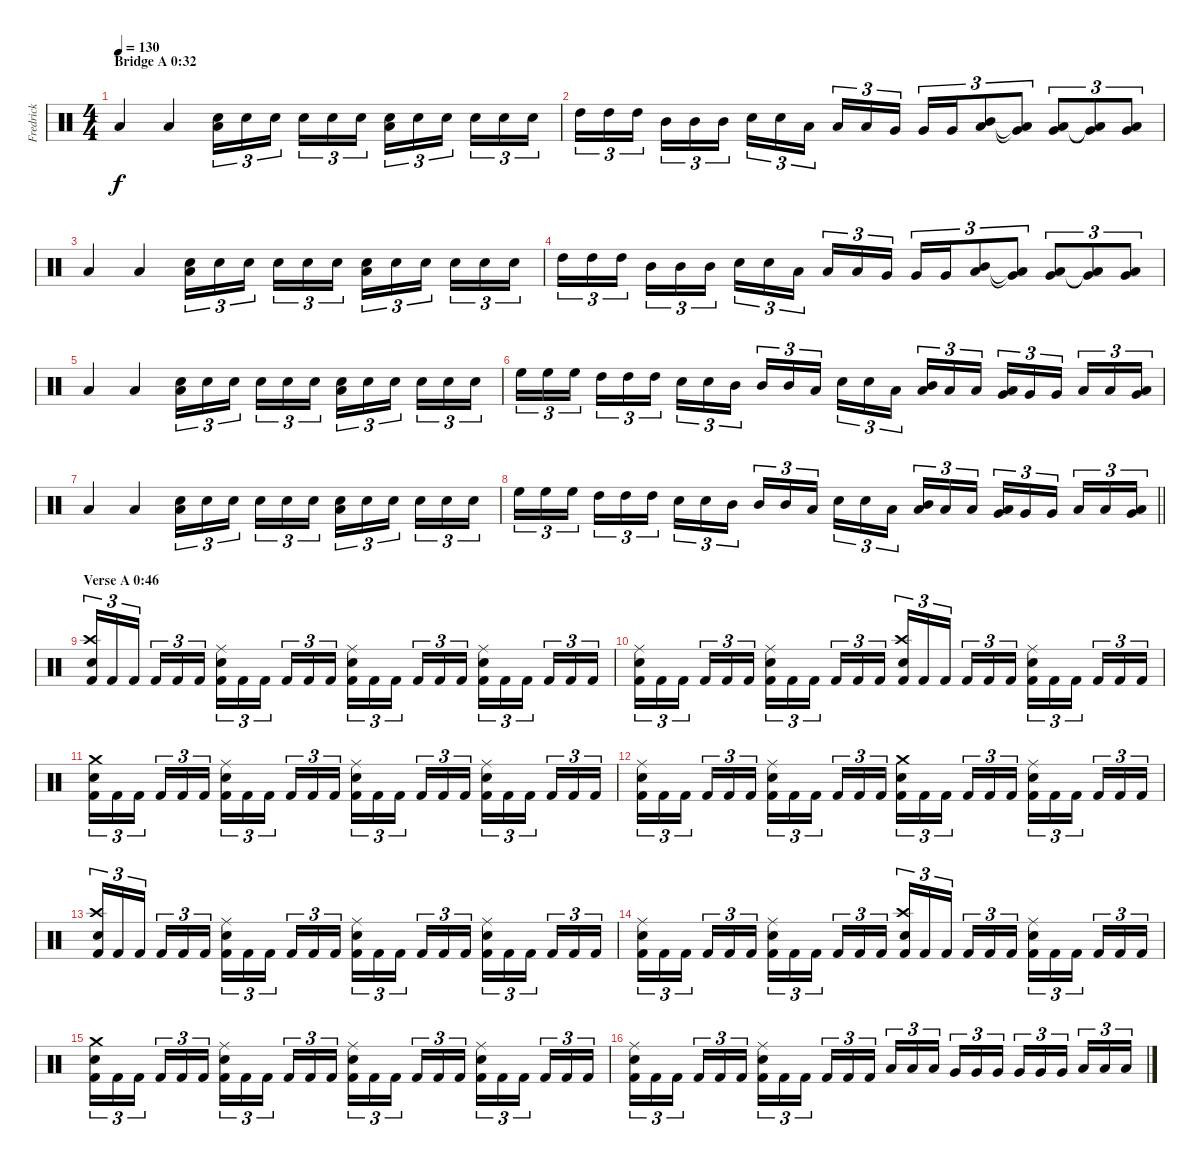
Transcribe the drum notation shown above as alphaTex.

\track ("Fredrick" "Fredrick") {instrument percussion}
\staff {score}
\articulation defaults
\ts (4 4)
\section ("" "Bridge A 0:32")
\tempo 130
\clef neutral
\ks c "Low Floor Tom (hit)".4{dy f} "Low Floor Tom (hit)".4
("Low Floor Tom (hit)" "Electric Snare (hit)").16{tu (3 2)} "Electric Snare (hit)".16{tu (3 2)} "Electric Snare (hit)".16{tu (3 2) beam splitsecondary} "Electric Snare (hit)".16{tu (3 2)} "Electric Snare (hit)".16{tu (3 2)} "Electric Snare (hit)".16{tu (3 2)} ("Low Floor Tom (hit)" "Electric Snare (hit)").16{tu (3 2)} "Electric Snare (hit)".16{tu (3 2)} "Electric Snare (hit)".16{tu (3 2) beam splitsecondary} "Electric Snare (hit)".16{tu (3 2)} "Electric Snare (hit)".16{tu (3 2)} "Electric Snare (hit)".16{tu (3 2)} |
"High Tom (hit)".16{tu (3 2)} "High Tom (hit)".16{tu (3 2)} "High Tom (hit)".16{tu (3 2) beam splitsecondary} "Mid Tom (hit)".16{tu (3 2)} "Mid Tom (hit)".16{tu (3 2)} "Mid Tom (hit)".16{tu (3 2)} "Electric Snare (hit)".16{tu (3 2)} "Electric Snare (hit)".16{tu (3 2)} "Low Tom (hit)".16{tu (3 2) beam splitsecondary} "Low Tom (hit)".16{tu (3 2)} "Low Tom (hit)".16{tu (3 2)} "Very Low Tom (hit)".16{tu (3 2)} "Very Low Tom (hit)".16{tu (3 2)} "Very Low Tom (hit)".16{tu (3 2)} ("Mid Tom (hit)" "Low Tom (hit)").8{tu (3 2)} ("Low Tom (hit)"{t} "Very Low Tom (hit)"{t}).8{tu (3 2)} ("Low Tom (hit)" "Very Low Tom (hit)").8{tu (3 2)} ("Very Low Tom (hit)"{t} "Low Floor Tom (hit)"{t}).8{tu (3 2)} ("Very Low Tom (hit)" "Low Floor Tom (hit)").8{tu (3 2)} |
"Low Floor Tom (hit)".4 "Low Floor Tom (hit)".4 ("Low Floor Tom (hit)" "Electric Snare (hit)").16{tu (3 2)} "Electric Snare (hit)".16{tu (3 2)} "Electric Snare (hit)".16{tu (3 2) beam splitsecondary} "Electric Snare (hit)".16{tu (3 2)} "Electric Snare (hit)".16{tu (3 2)} "Electric Snare (hit)".16{tu (3 2)} ("Low Floor Tom (hit)" "Electric Snare (hit)").16{tu (3 2)} "Electric Snare (hit)".16{tu (3 2)} "Electric Snare (hit)".16{tu (3 2) beam splitsecondary} "Electric Snare (hit)".16{tu (3 2)} "Electric Snare (hit)".16{tu (3 2)} "Electric Snare (hit)".16{tu (3 2)} |
"High Tom (hit)".16{tu (3 2)} "High Tom (hit)".16{tu (3 2)} "High Tom (hit)".16{tu (3 2) beam splitsecondary} "Mid Tom (hit)".16{tu (3 2)} "Mid Tom (hit)".16{tu (3 2)} "Mid Tom (hit)".16{tu (3 2)} "Electric Snare (hit)".16{tu (3 2)} "Electric Snare (hit)".16{tu (3 2)} "Low Tom (hit)".16{tu (3 2) beam splitsecondary} "Low Tom (hit)".16{tu (3 2)} "Low Tom (hit)".16{tu (3 2)} "Very Low Tom (hit)".16{tu (3 2)} "Very Low Tom (hit)".16{tu (3 2)} "Very Low Tom (hit)".16{tu (3 2)} ("Mid Tom (hit)" "Low Tom (hit)").8{tu (3 2)} ("Low Tom (hit)"{t} "Very Low Tom (hit)"{t}).8{tu (3 2)} ("Low Tom (hit)" "Very Low Tom (hit)").8{tu (3 2)} ("Very Low Tom (hit)"{t} "Low Floor Tom (hit)"{t}).8{tu (3 2)} ("Very Low Tom (hit)" "Low Floor Tom (hit)").8{tu (3 2)} |
"Low Floor Tom (hit)".4 "Low Floor Tom (hit)".4 ("Low Floor Tom (hit)" "Electric Snare (hit)").16{tu (3 2)} "Electric Snare (hit)".16{tu (3 2)} "Electric Snare (hit)".16{tu (3 2) beam splitsecondary} "Electric Snare (hit)".16{tu (3 2)} "Electric Snare (hit)".16{tu (3 2)} "Electric Snare (hit)".16{tu (3 2)} ("Low Floor Tom (hit)" "Electric Snare (hit)").16{tu (3 2)} "Electric Snare (hit)".16{tu (3 2)} "Electric Snare (hit)".16{tu (3 2) beam splitsecondary} "Electric Snare (hit)".16{tu (3 2)} "Electric Snare (hit)".16{tu (3 2)} "Electric Snare (hit)".16{tu (3 2)} |
"High Floor Tom (hit)".16{tu (3 2)} "High Floor Tom (hit)".16{tu (3 2)} "High Floor Tom (hit)".16{tu (3 2) beam splitsecondary} "High Tom (hit)".16{tu (3 2)} "High Tom (hit)".16{tu (3 2)} "High Tom (hit)".16{tu (3 2)} "Electric Snare (hit)".16{tu (3 2)} "Electric Snare (hit)".16{tu (3 2)} "Mid Tom (hit)".16{tu (3 2) beam splitsecondary} "Mid Tom (hit)".16{tu (3 2)} "Mid Tom (hit)".16{tu (3 2)} "Low Tom (hit)".16{tu (3 2)} "Electric Snare (hit)".16{tu (3 2)} "Electric Snare (hit)".16{tu (3 2)} "Low Tom (hit)".16{tu (3 2) beam splitsecondary} ("Mid Tom (hit)" "Low Tom (hit)").16{tu (3 2)} "Low Tom (hit)".16{tu (3 2)} "Low Tom (hit)".16{tu (3 2)} ("Low Tom (hit)" "Very Low Tom (hit)").16{tu (3 2)} "Very Low Tom (hit)".16{tu (3 2)} "Very Low Tom (hit)".16{tu (3 2) beam splitsecondary} "Low Floor Tom (hit)".16{tu (3 2)} "Low Floor Tom (hit)".16{tu (3 2)} ("Very Low Tom (hit)" "Low Floor Tom (hit)").16{tu (3 2)} |
"Low Floor Tom (hit)".4 "Low Floor Tom (hit)".4 ("Low Floor Tom (hit)" "Electric Snare (hit)").16{tu (3 2)} "Electric Snare (hit)".16{tu (3 2)} "Electric Snare (hit)".16{tu (3 2) beam splitsecondary} "Electric Snare (hit)".16{tu (3 2)} "Electric Snare (hit)".16{tu (3 2)} "Electric Snare (hit)".16{tu (3 2)} ("Low Floor Tom (hit)" "Electric Snare (hit)").16{tu (3 2)} "Electric Snare (hit)".16{tu (3 2)} "Electric Snare (hit)".16{tu (3 2) beam splitsecondary} "Electric Snare (hit)".16{tu (3 2)} "Electric Snare (hit)".16{tu (3 2)} "Electric Snare (hit)".16{tu (3 2)} |
\barLineRight lightlight "High Floor Tom (hit)".16{tu (3 2)} "High Floor Tom (hit)".16{tu (3 2)} "High Floor Tom (hit)".16{tu (3 2) beam splitsecondary} "High Tom (hit)".16{tu (3 2)} "High Tom (hit)".16{tu (3 2)} "High Tom (hit)".16{tu (3 2)} "Electric Snare (hit)".16{tu (3 2)} "Electric Snare (hit)".16{tu (3 2)} "Mid Tom (hit)".16{tu (3 2) beam splitsecondary} "Mid Tom (hit)".16{tu (3 2)} "Mid Tom (hit)".16{tu (3 2)} "Low Tom (hit)".16{tu (3 2)} "Electric Snare (hit)".16{tu (3 2)} "Electric Snare (hit)".16{tu (3 2)} "Low Tom (hit)".16{tu (3 2) beam splitsecondary}
("Mid Tom (hit)" "Low Tom (hit)").16{tu (3 2)} "Low Tom (hit)".16{tu (3 2)} "Low Tom (hit)".16{tu (3 2)} ("Low Tom (hit)" "Very Low Tom (hit)").16{tu (3 2)} "Very Low Tom (hit)".16{tu (3 2)} "Very Low Tom (hit)".16{tu (3 2) beam splitsecondary} "Low Floor Tom (hit)".16{tu (3 2)} "Low Floor Tom (hit)".16{tu (3 2)} ("Very Low Tom (hit)" "Low Floor Tom (hit)").16{tu (3 2)} |
\section ("" "Verse A 0:46")
("Crash high (hit)" "Electric Snare (hit)" "Kick (hit) 2").16{tu (3 2)} "Kick (hit) 2".16{tu (3 2)} "Kick (hit) 2".16{tu (3 2) beam splitsecondary} "Kick (hit) 2".16{tu (3 2)} "Kick (hit) 2".16{tu (3 2)} "Kick (hit) 2".16{tu (3 2)} ("Ride (middle)" "Electric Snare (hit)" "Kick (hit) 2").16{tu (3 2)} "Kick (hit) 2".16{tu (3 2)} "Kick (hit) 2".16{tu (3 2) beam splitsecondary} "Kick (hit) 2".16{tu (3 2)} "Kick (hit) 2".16{tu (3 2)} "Kick (hit) 2".16{tu (3 2)} ("Ride (middle)" "Electric Snare (hit)" "Kick (hit) 2").16{tu (3 2)} "Kick (hit) 2".16{tu (3 2)} "Kick (hit) 2".16{tu (3 2) beam splitsecondary} "Kick (hit) 2".16{tu (3 2)} "Kick (hit) 2".16{tu (3 2)} "Kick (hit) 2".16{tu (3 2)} ("Ride (middle)" "Electric Snare (hit)" "Kick (hit) 2").16{tu (3 2)} "Kick (hit) 2".16{tu (3 2)} "Kick (hit) 2".16{tu (3 2) beam splitsecondary} "Kick (hit) 2".16{tu (3 2)} "Kick (hit) 2".16{tu (3 2)} "Kick (hit) 2".16{tu (3 2)} |
("Ride (middle)" "Electric Snare (hit)" "Kick (hit) 2").16{tu (3 2)} "Kick (hit) 2".16{tu (3 2)} "Kick (hit) 2".16{tu (3 2) beam splitsecondary} "Kick (hit) 2".16{tu (3 2)} "Kick (hit) 2".16{tu (3 2)} "Kick (hit) 2".16{tu (3 2)} ("Ride (middle)" "Electric Snare (hit)" "Kick (hit) 2").16{tu (3 2)} "Kick (hit) 2".16{tu (3 2)} "Kick (hit) 2".16{tu (3 2) beam splitsecondary} "Kick (hit) 2".16{tu (3 2)} "Kick (hit) 2".16{tu (3 2)} "Kick (hit) 2".16{tu (3 2)} ("Crash high (hit)" "Electric Snare (hit)" "Kick (hit) 2").16{tu (3 2)} "Kick (hit) 2".16{tu (3 2)} "Kick (hit) 2".16{tu (3 2) beam splitsecondary} "Kick (hit) 2".16{tu (3 2)} "Kick (hit) 2".16{tu (3 2)} "Kick (hit) 2".16{tu (3 2)} ("Ride (middle)" "Electric Snare (hit)" "Kick (hit) 2").16{tu (3 2)} "Kick (hit) 2".16{tu (3 2)} "Kick (hit) 2".16{tu (3 2) beam splitsecondary} "Kick (hit) 2".16{tu (3 2)} "Kick (hit) 2".16{tu (3 2)} "Kick (hit) 2".16{tu (3 2)} |
("Crash medium (hit)" "Electric Snare (hit)" "Kick (hit) 2").16{tu (3 2)} "Kick (hit) 2".16{tu (3 2)} "Kick (hit) 2".16{tu (3 2) beam splitsecondary} "Kick (hit) 2".16{tu (3 2)} "Kick (hit) 2".16{tu (3 2)} "Kick (hit) 2".16{tu (3 2)} ("Ride (middle)" "Electric Snare (hit)" "Kick (hit) 2").16{tu (3 2)} "Kick (hit) 2".16{tu (3 2)} "Kick (hit) 2".16{tu (3 2) beam splitsecondary} "Kick (hit) 2".16{tu (3 2)} "Kick (hit) 2".16{tu (3 2)} "Kick (hit) 2".16{tu (3 2)} ("Ride (middle)" "Electric Snare (hit)" "Kick (hit) 2").16{tu (3 2)} "Kick (hit) 2".16{tu (3 2)} "Kick (hit) 2".16{tu (3 2) beam splitsecondary} "Kick (hit) 2".16{tu (3 2)} "Kick (hit) 2".16{tu (3 2)} "Kick (hit) 2".16{tu (3 2)} ("Ride (middle)" "Electric Snare (hit)" "Kick (hit) 2").16{tu (3 2)} "Kick (hit) 2".16{tu (3 2)} "Kick (hit) 2".16{tu (3 2) beam splitsecondary} "Kick (hit) 2".16{tu (3 2)} "Kick (hit) 2".16{tu (3 2)} "Kick (hit) 2".16{tu (3 2)} |
("Ride (middle)" "Electric Snare (hit)" "Kick (hit) 2").16{tu (3 2)} "Kick (hit) 2".16{tu (3 2)} "Kick (hit) 2".16{tu (3 2) beam splitsecondary} "Kick (hit) 2".16{tu (3 2)} "Kick (hit) 2".16{tu (3 2)} "Kick (hit) 2".16{tu (3 2)} ("Ride (middle)" "Electric Snare (hit)" "Kick (hit) 2").16{tu (3 2)} "Kick (hit) 2".16{tu (3 2)} "Kick (hit) 2".16{tu (3 2) beam splitsecondary} "Kick (hit) 2".16{tu (3 2)} "Kick (hit) 2".16{tu (3 2)} "Kick (hit) 2".16{tu (3 2)} ("Crash medium (hit)" "Electric Snare (hit)" "Kick (hit) 2").16{tu (3 2)} "Kick (hit) 2".16{tu (3 2)} "Kick (hit) 2".16{tu (3 2) beam splitsecondary} "Kick (hit) 2".16{tu (3 2)} "Kick (hit) 2".16{tu (3 2)} "Kick (hit) 2".16{tu (3 2)} ("Ride (middle)" "Electric Snare (hit)" "Kick (hit) 2").16{tu (3 2)} "Kick (hit) 2".16{tu (3 2)} "Kick (hit) 2".16{tu (3 2) beam splitsecondary} "Kick (hit) 2".16{tu (3 2)} "Kick (hit) 2".16{tu (3 2)} "Kick (hit) 2".16{tu (3 2)} |
("Crash high (hit)" "Electric Snare (hit)" "Kick (hit) 2").16{tu (3 2)} "Kick (hit) 2".16{tu (3 2)} "Kick (hit) 2".16{tu (3 2) beam splitsecondary} "Kick (hit) 2".16{tu (3 2)} "Kick (hit) 2".16{tu (3 2)} "Kick (hit) 2".16{tu (3 2)} ("Ride (middle)" "Electric Snare (hit)" "Kick (hit) 2").16{tu (3 2)} "Kick (hit) 2".16{tu (3 2)} "Kick (hit) 2".16{tu (3 2) beam splitsecondary} "Kick (hit) 2".16{tu (3 2)} "Kick (hit) 2".16{tu (3 2)} "Kick (hit) 2".16{tu (3 2)} ("Ride (middle)" "Electric Snare (hit)" "Kick (hit) 2").16{tu (3 2)} "Kick (hit) 2".16{tu (3 2)} "Kick (hit) 2".16{tu (3 2) beam splitsecondary} "Kick (hit) 2".16{tu (3 2)} "Kick (hit) 2".16{tu (3 2)} "Kick (hit) 2".16{tu (3 2)} ("Ride (middle)" "Electric Snare (hit)" "Kick (hit) 2").16{tu (3 2)} "Kick (hit) 2".16{tu (3 2)} "Kick (hit) 2".16{tu (3 2) beam splitsecondary} "Kick (hit) 2".16{tu (3 2)} "Kick (hit) 2".16{tu (3 2)} "Kick (hit) 2".16{tu (3 2)} |
("Ride (middle)" "Electric Snare (hit)" "Kick (hit) 2").16{tu (3 2)} "Kick (hit) 2".16{tu (3 2)} "Kick (hit) 2".16{tu (3 2) beam splitsecondary} "Kick (hit) 2".16{tu (3 2)} "Kick (hit) 2".16{tu (3 2)} "Kick (hit) 2".16{tu (3 2)} ("Ride (middle)" "Electric Snare (hit)" "Kick (hit) 2").16{tu (3 2)} "Kick (hit) 2".16{tu (3 2)} "Kick (hit) 2".16{tu (3 2) beam splitsecondary} "Kick (hit) 2".16{tu (3 2)} "Kick (hit) 2".16{tu (3 2)} "Kick (hit) 2".16{tu (3 2)} ("Crash high (hit)" "Electric Snare (hit)" "Kick (hit) 2").16{tu (3 2)} "Kick (hit) 2".16{tu (3 2)} "Kick (hit) 2".16{tu (3 2) beam splitsecondary} "Kick (hit) 2".16{tu (3 2)} "Kick (hit) 2".16{tu (3 2)} "Kick (hit) 2".16{tu (3 2)} ("Ride (middle)" "Electric Snare (hit)" "Kick (hit) 2").16{tu (3 2)} "Kick (hit) 2".16{tu (3 2)} "Kick (hit) 2".16{tu (3 2) beam splitsecondary} "Kick (hit) 2".16{tu (3 2)} "Kick (hit) 2".16{tu (3 2)} "Kick (hit) 2".16{tu (3 2)} |
("Crash medium (hit)" "Electric Snare (hit)" "Kick (hit) 2").16{tu (3 2)} "Kick (hit) 2".16{tu (3 2)} "Kick (hit) 2".16{tu (3 2) beam splitsecondary} "Kick (hit) 2".16{tu (3 2)} "Kick (hit) 2".16{tu (3 2)} "Kick (hit) 2".16{tu (3 2)} ("Ride (middle)" "Electric Snare (hit)" "Kick (hit) 2").16{tu (3 2)} "Kick (hit) 2".16{tu (3 2)} "Kick (hit) 2".16{tu (3 2) beam splitsecondary} "Kick (hit) 2".16{tu (3 2)} "Kick (hit) 2".16{tu (3 2)} "Kick (hit) 2".16{tu (3 2)} ("Ride (middle)" "Electric Snare (hit)" "Kick (hit) 2").16{tu (3 2)} "Kick (hit) 2".16{tu (3 2)} "Kick (hit) 2".16{tu (3 2) beam splitsecondary} "Kick (hit) 2".16{tu (3 2)} "Kick (hit) 2".16{tu (3 2)} "Kick (hit) 2".16{tu (3 2)} ("Ride (middle)" "Electric Snare (hit)" "Kick (hit) 2").16{tu (3 2)} "Kick (hit) 2".16{tu (3 2)} "Kick (hit) 2".16{tu (3 2) beam splitsecondary} "Kick (hit) 2".16{tu (3 2)} "Kick (hit) 2".16{tu (3 2)} "Kick (hit) 2".16{tu (3 2)} |
("Ride (middle)" "Electric Snare (hit)" "Kick (hit) 2").16{tu (3 2)} "Kick (hit) 2".16{tu (3 2)} "Kick (hit) 2".16{tu (3 2) beam splitsecondary} "Kick (hit) 2".16{tu (3 2)} "Kick (hit) 2".16{tu (3 2)} "Kick (hit) 2".16{tu (3 2)} ("Ride (middle)" "Electric Snare (hit)" "Kick (hit) 2").16{tu (3 2)} "Kick (hit) 2".16{tu (3 2)} "Kick (hit) 2".16{tu (3 2) beam splitsecondary} "Kick (hit) 2".16{tu (3 2)} "Kick (hit) 2".16{tu (3 2)} "Kick (hit) 2".16{tu (3 2)} "Low Tom (hit)".16{tu (3 2)} "Low Tom (hit)".16{tu (3 2)} "Low Tom (hit)".16{tu (3 2) beam splitsecondary} "Very Low Tom (hit)".16{tu (3 2)} "Very Low Tom (hit)".16{tu (3 2)} "Very Low Tom (hit)".16{tu (3 2)} "Very Low Tom (hit)".16{tu (3 2)} "Very Low Tom (hit)".16{tu (3 2)} "Very Low Tom (hit)".16{tu (3 2) beam splitsecondary} "Low Floor Tom (hit)".16{tu (3 2)} "Low Floor Tom (hit)".16{tu (3 2)} "Low Floor Tom (hit)".16{tu (3 2)}
